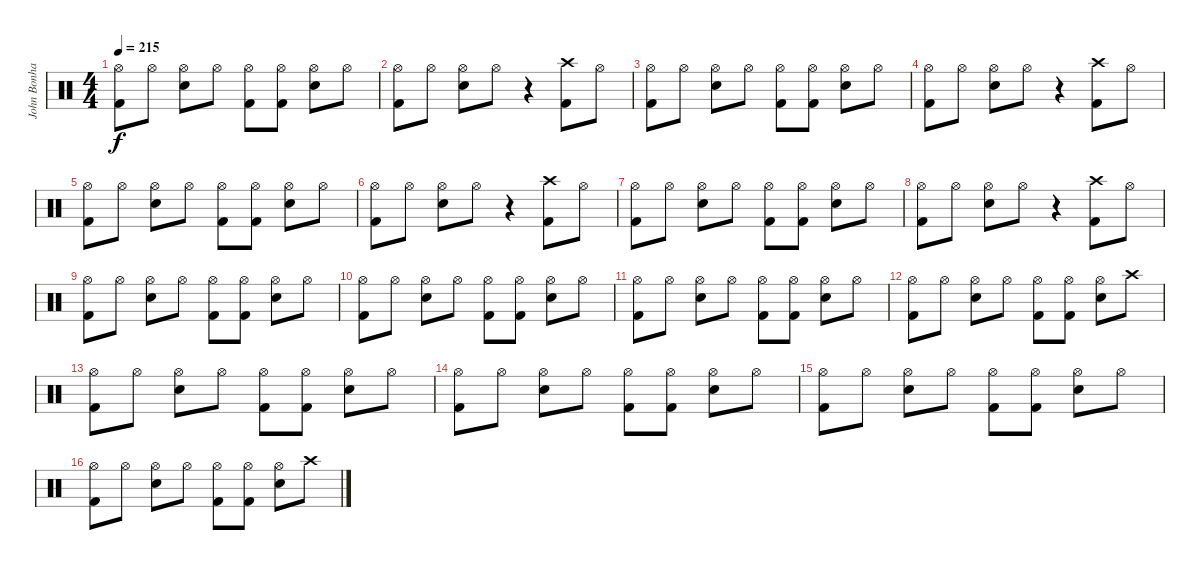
\track ("John Bonham" "John Bonha") {instrument percussion}
\staff {score}
\articulation defaults
\ts (4 4)
\tempo 215
\clef neutral
\ks c
("Hi-Hat (open)" "Kick (hit) 2").8{dy f} "Hi-Hat (open)".8 ("Hi-Hat (open)" "Snare (hit) 2").8 "Hi-Hat (open)".8 ("Hi-Hat (open)" "Kick (hit) 2").8 ("Hi-Hat (open)" "Kick (hit) 2").8 ("Hi-Hat (open)" "Snare (hit) 2").8 "Hi-Hat (open)".8 |
("Hi-Hat (open)" "Kick (hit) 2").8 "Hi-Hat (open)".8 ("Hi-Hat (open)" "Snare (hit) 2").8 "Hi-Hat (open)".8 r.4 ("Crash high (hit)" "Kick (hit) 2").8 "Hi-Hat (open)".8 |
("Hi-Hat (open)" "Kick (hit) 2").8 "Hi-Hat (open)".8 ("Hi-Hat (open)" "Snare (hit) 2").8 "Hi-Hat (open)".8 ("Hi-Hat (open)" "Kick (hit) 2").8 ("Hi-Hat (open)" "Kick (hit) 2").8 ("Hi-Hat (open)" "Snare (hit) 2").8 "Hi-Hat (open)".8 |
("Hi-Hat (open)" "Kick (hit) 2").8 "Hi-Hat (open)".8 ("Hi-Hat (open)" "Snare (hit) 2").8 "Hi-Hat (open)".8 r.4 ("Crash high (hit)" "Kick (hit) 2").8 "Hi-Hat (open)".8 |
("Hi-Hat (open)" "Kick (hit) 2").8 "Hi-Hat (open)".8 ("Hi-Hat (open)" "Snare (hit) 2").8 "Hi-Hat (open)".8 ("Hi-Hat (open)" "Kick (hit) 2").8 ("Hi-Hat (open)" "Kick (hit) 2").8 ("Hi-Hat (open)" "Snare (hit) 2").8 "Hi-Hat (open)".8 |
("Hi-Hat (open)" "Kick (hit) 2").8 "Hi-Hat (open)".8 ("Hi-Hat (open)" "Snare (hit) 2").8 "Hi-Hat (open)".8 r.4 ("Crash high (hit)" "Kick (hit) 2").8 "Hi-Hat (open)".8 |
("Hi-Hat (open)" "Kick (hit) 2").8 "Hi-Hat (open)".8 ("Hi-Hat (open)" "Snare (hit) 2").8 "Hi-Hat (open)".8 ("Hi-Hat (open)" "Kick (hit) 2").8 ("Hi-Hat (open)" "Kick (hit) 2").8 ("Hi-Hat (open)" "Snare (hit) 2").8 "Hi-Hat (open)".8 |
("Hi-Hat (open)" "Kick (hit) 2").8 "Hi-Hat (open)".8 ("Hi-Hat (open)" "Snare (hit) 2").8 "Hi-Hat (open)".8 r.4 ("Crash high (hit)" "Kick (hit) 2").8 "Hi-Hat (open)".8 |
("Hi-Hat (open)" "Kick (hit) 2").8 "Hi-Hat (open)".8 ("Hi-Hat (open)" "Snare (hit) 2").8 "Hi-Hat (open)".8 ("Hi-Hat (open)" "Kick (hit) 2").8 ("Hi-Hat (open)" "Kick (hit) 2").8 ("Hi-Hat (open)" "Snare (hit) 2").8 "Hi-Hat (open)".8 |
("Hi-Hat (open)" "Kick (hit) 2").8 "Hi-Hat (open)".8 ("Hi-Hat (open)" "Snare (hit) 2").8 "Hi-Hat (open)".8 ("Hi-Hat (open)" "Kick (hit) 2").8 ("Hi-Hat (open)" "Kick (hit) 2").8 ("Hi-Hat (open)" "Snare (hit) 2").8 "Hi-Hat (open)".8 |
("Hi-Hat (open)" "Kick (hit) 2").8 "Hi-Hat (open)".8 ("Hi-Hat (open)" "Snare (hit) 2").8 "Hi-Hat (open)".8 ("Hi-Hat (open)" "Kick (hit) 2").8 ("Hi-Hat (open)" "Kick (hit) 2").8 ("Hi-Hat (open)" "Snare (hit) 2").8 "Hi-Hat (open)".8 |
("Hi-Hat (open)" "Kick (hit) 2").8 "Hi-Hat (open)".8 ("Hi-Hat (open)" "Snare (hit) 2").8 "Hi-Hat (open)".8 ("Hi-Hat (open)" "Kick (hit) 2").8 ("Hi-Hat (open)" "Kick (hit) 2").8 ("Hi-Hat (open)" "Snare (hit) 2").8 "Crash high (hit)".8 |
("Hi-Hat (open)" "Kick (hit) 2").8 "Hi-Hat (open)".8 ("Hi-Hat (open)" "Snare (hit) 2").8 "Hi-Hat (open)".8 ("Hi-Hat (open)" "Kick (hit) 2").8 ("Hi-Hat (open)" "Kick (hit) 2").8 ("Hi-Hat (open)" "Snare (hit) 2").8 "Hi-Hat (open)".8 |
("Hi-Hat (open)" "Kick (hit) 2").8 "Hi-Hat (open)".8 ("Hi-Hat (open)" "Snare (hit) 2").8 "Hi-Hat (open)".8 ("Hi-Hat (open)" "Kick (hit) 2").8 ("Hi-Hat (open)" "Kick (hit) 2").8 ("Hi-Hat (open)" "Snare (hit) 2").8 "Hi-Hat (open)".8 |
("Hi-Hat (open)" "Kick (hit) 2").8 "Hi-Hat (open)".8 ("Hi-Hat (open)" "Snare (hit) 2").8 "Hi-Hat (open)".8 ("Hi-Hat (open)" "Kick (hit) 2").8 ("Hi-Hat (open)" "Kick (hit) 2").8 ("Hi-Hat (open)" "Snare (hit) 2").8 "Hi-Hat (open)".8 |
("Hi-Hat (open)" "Kick (hit) 2").8 "Hi-Hat (open)".8 ("Hi-Hat (open)" "Snare (hit) 2").8 "Hi-Hat (open)".8 ("Hi-Hat (open)" "Kick (hit) 2").8 ("Hi-Hat (open)" "Kick (hit) 2").8 ("Hi-Hat (open)" "Snare (hit) 2").8 "Crash high (hit)".8
